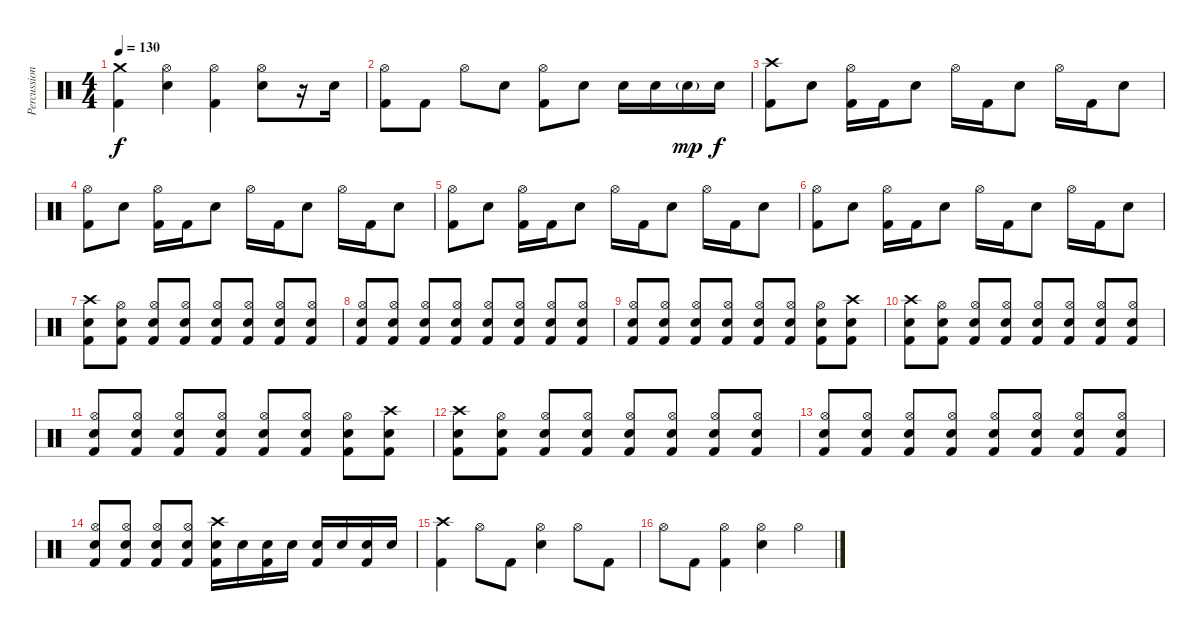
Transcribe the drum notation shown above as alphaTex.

\track ("Percussion" "Percussion") {instrument percussion}
\staff {score}
\articulation defaults
\ts (4 4)
\tempo 130
\clef neutral
\ks c
("Crash medium (hit)" "Kick (hit) 2").4{dy f} ("Hi-Hat (open)" "Electric Snare (hit)").4 ("Hi-Hat (open)" "Kick (hit) 2").4 ("Hi-Hat (open)" "Electric Snare (hit)").8 r.16 "Electric Snare (hit)".16 |
("Hi-Hat (open)" "Kick (hit) 2").8 "Kick (hit) 2".8 "Hi-Hat (open)".8 "Electric Snare (hit)".8 ("Hi-Hat (open)" "Kick (hit) 2").8 "Electric Snare (hit)".8 "Electric Snare (hit)".16 "Electric Snare (hit)".16 "Electric Snare (hit)"{g}.16{dy mp} "Electric Snare (hit)".16{dy f} |
("Crash high (hit)" "Kick (hit) 2").8 "Electric Snare (hit)".8 ("Hi-Hat (open)" "Kick (hit) 2").16 "Kick (hit) 2".16 "Electric Snare (hit)".8 "Hi-Hat (open)".16 "Kick (hit) 2".16 "Electric Snare (hit)".8 "Hi-Hat (open)".16 "Kick (hit) 2".16 "Electric Snare (hit)".8 |
("Hi-Hat (open)" "Kick (hit) 2").8 "Electric Snare (hit)".8 ("Hi-Hat (open)" "Kick (hit) 2").16 "Kick (hit) 2".16 "Electric Snare (hit)".8 "Hi-Hat (open)".16 "Kick (hit) 2".16 "Electric Snare (hit)".8 "Hi-Hat (open)".16 "Kick (hit) 2".16 "Electric Snare (hit)".8 |
("Hi-Hat (open)" "Kick (hit) 2").8 "Electric Snare (hit)".8 ("Hi-Hat (open)" "Kick (hit) 2").16 "Kick (hit) 2".16 "Electric Snare (hit)".8 "Hi-Hat (open)".16 "Kick (hit) 2".16 "Electric Snare (hit)".8 "Hi-Hat (open)".16 "Kick (hit) 2".16 "Electric Snare (hit)".8 |
("Hi-Hat (open)" "Kick (hit) 2").8 "Electric Snare (hit)".8 ("Hi-Hat (open)" "Kick (hit) 2").16 "Kick (hit) 2".16 "Electric Snare (hit)".8 "Hi-Hat (open)".16 "Kick (hit) 2".16 "Electric Snare (hit)".8 "Hi-Hat (open)".16 "Kick (hit) 2".16 "Electric Snare (hit)".8 |
("Crash high (hit)" "Electric Snare (hit)" "Kick (hit) 2").8 ("Hi-Hat (open)" "Electric Snare (hit)" "Kick (hit) 2").8 ("Hi-Hat (open)" "Electric Snare (hit)" "Kick (hit) 2").8 ("Hi-Hat (open)" "Electric Snare (hit)" "Kick (hit) 2").8 ("Hi-Hat (open)" "Electric Snare (hit)" "Kick (hit) 2").8 ("Hi-Hat (open)" "Electric Snare (hit)" "Kick (hit) 2").8 ("Hi-Hat (open)" "Electric Snare (hit)" "Kick (hit) 2").8 ("Hi-Hat (open)" "Electric Snare (hit)" "Kick (hit) 2").8 |
("Hi-Hat (open)" "Electric Snare (hit)" "Kick (hit) 2").8 ("Hi-Hat (open)" "Electric Snare (hit)" "Kick (hit) 2").8 ("Hi-Hat (open)" "Electric Snare (hit)" "Kick (hit) 2").8 ("Hi-Hat (open)" "Electric Snare (hit)" "Kick (hit) 2").8 ("Hi-Hat (open)" "Electric Snare (hit)" "Kick (hit) 2").8 ("Hi-Hat (open)" "Electric Snare (hit)" "Kick (hit) 2").8 ("Hi-Hat (open)" "Electric Snare (hit)" "Kick (hit) 2").8 ("Hi-Hat (open)" "Electric Snare (hit)" "Kick (hit) 2").8 |
("Hi-Hat (open)" "Electric Snare (hit)" "Kick (hit) 2").8 ("Hi-Hat (open)" "Electric Snare (hit)" "Kick (hit) 2").8 ("Hi-Hat (open)" "Electric Snare (hit)" "Kick (hit) 2").8 ("Hi-Hat (open)" "Electric Snare (hit)" "Kick (hit) 2").8 ("Hi-Hat (open)" "Electric Snare (hit)" "Kick (hit) 2").8 ("Hi-Hat (open)" "Electric Snare (hit)" "Kick (hit) 2").8 ("Hi-Hat (open)" "Electric Snare (hit)" "Kick (hit) 2").8 ("Crash high (hit)" "Electric Snare (hit)" "Kick (hit) 2").8 |
("Crash high (hit)" "Electric Snare (hit)" "Kick (hit) 2").8 ("Hi-Hat (open)" "Electric Snare (hit)" "Kick (hit) 2").8 ("Hi-Hat (open)" "Electric Snare (hit)" "Kick (hit) 2").8 ("Hi-Hat (open)" "Electric Snare (hit)" "Kick (hit) 2").8 ("Hi-Hat (open)" "Electric Snare (hit)" "Kick (hit) 2").8 ("Hi-Hat (open)" "Electric Snare (hit)" "Kick (hit) 2").8 ("Hi-Hat (open)" "Electric Snare (hit)" "Kick (hit) 2").8 ("Hi-Hat (open)" "Electric Snare (hit)" "Kick (hit) 2").8 |
("Hi-Hat (open)" "Electric Snare (hit)" "Kick (hit) 2").8 ("Hi-Hat (open)" "Electric Snare (hit)" "Kick (hit) 2").8 ("Hi-Hat (open)" "Electric Snare (hit)" "Kick (hit) 2").8 ("Hi-Hat (open)" "Electric Snare (hit)" "Kick (hit) 2").8 ("Hi-Hat (open)" "Electric Snare (hit)" "Kick (hit) 2").8 ("Hi-Hat (open)" "Electric Snare (hit)" "Kick (hit) 2").8 ("Hi-Hat (open)" "Electric Snare (hit)" "Kick (hit) 2").8 ("Crash high (hit)" "Electric Snare (hit)" "Kick (hit) 2").8 |
("Crash high (hit)" "Electric Snare (hit)" "Kick (hit) 2").8 ("Hi-Hat (open)" "Electric Snare (hit)" "Kick (hit) 2").8 ("Hi-Hat (open)" "Electric Snare (hit)" "Kick (hit) 2").8 ("Hi-Hat (open)" "Electric Snare (hit)" "Kick (hit) 2").8 ("Hi-Hat (open)" "Electric Snare (hit)" "Kick (hit) 2").8 ("Hi-Hat (open)" "Electric Snare (hit)" "Kick (hit) 2").8 ("Hi-Hat (open)" "Electric Snare (hit)" "Kick (hit) 2").8 ("Hi-Hat (open)" "Electric Snare (hit)" "Kick (hit) 2").8 |
("Hi-Hat (open)" "Electric Snare (hit)" "Kick (hit) 2").8 ("Hi-Hat (open)" "Electric Snare (hit)" "Kick (hit) 2").8 ("Hi-Hat (open)" "Electric Snare (hit)" "Kick (hit) 2").8 ("Hi-Hat (open)" "Electric Snare (hit)" "Kick (hit) 2").8 ("Hi-Hat (open)" "Electric Snare (hit)" "Kick (hit) 2").8 ("Hi-Hat (open)" "Electric Snare (hit)" "Kick (hit) 2").8 ("Hi-Hat (open)" "Electric Snare (hit)" "Kick (hit) 2").8 ("Hi-Hat (open)" "Electric Snare (hit)" "Kick (hit) 2").8 |
("Hi-Hat (open)" "Electric Snare (hit)" "Kick (hit) 2").8 ("Hi-Hat (open)" "Electric Snare (hit)" "Kick (hit) 2").8 ("Hi-Hat (open)" "Electric Snare (hit)" "Kick (hit) 2").8 ("Hi-Hat (open)" "Electric Snare (hit)" "Kick (hit) 2").8 ("Crash high (hit)" "Electric Snare (hit)" "Kick (hit) 2").16 "Electric Snare (hit)".16 ("Electric Snare (hit)" "Kick (hit) 2").16 "Electric Snare (hit)".16 ("Electric Snare (hit)" "Kick (hit) 2").16 "Electric Snare (hit)".16 ("Electric Snare (hit)" "Kick (hit) 2").16 "Electric Snare (hit)".16 |
("Crash high (hit)" "Kick (hit) 2").4 "Hi-Hat (open)".8 "Kick (hit) 2".8 ("Hi-Hat (open)" "Electric Snare (hit)").4 "Hi-Hat (open)".8 "Kick (hit) 2".8 |
"Hi-Hat (open)".8 "Kick (hit) 2".8 ("Hi-Hat (open)" "Kick (hit) 2").4 ("Hi-Hat (open)" "Electric Snare (hit)").4 "Hi-Hat (open)".4
